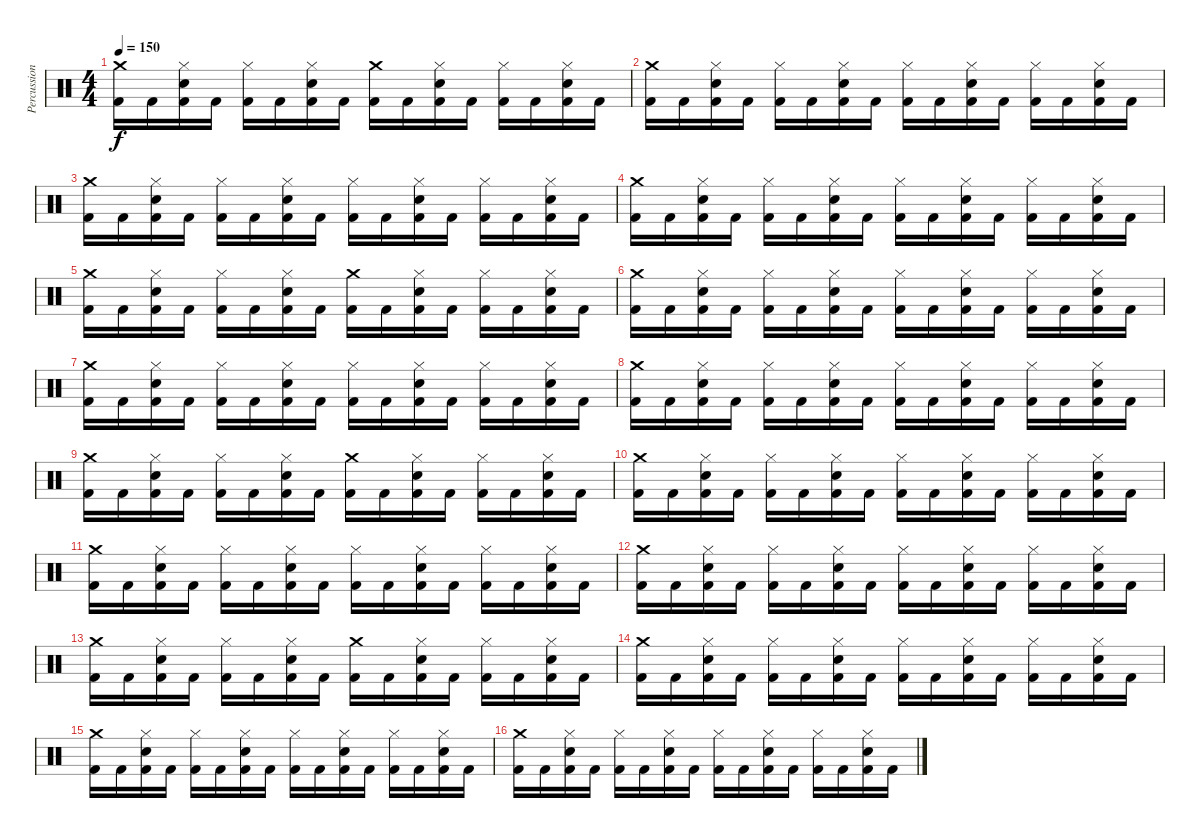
\track ("Percussioni" "Percussion") {instrument percussion}
\staff {score}
\articulation defaults
\ts (4 4)
\tempo 150
\clef neutral
\ks c
("Crash medium (hit)" "Kick (hit) 2").16{dy f} "Kick (hit) 2".16 ("Hi-Hat (closed)" "Electric Snare (hit)" "Kick (hit) 2").16 "Kick (hit) 2".16 ("Hi-Hat (closed)" "Kick (hit) 2").16 "Kick (hit) 2".16 ("Hi-Hat (closed)" "Electric Snare (hit)" "Kick (hit) 2").16 "Kick (hit) 2".16 ("Crash medium (hit)" "Kick (hit) 2").16 "Kick (hit) 2".16 ("Hi-Hat (closed)" "Electric Snare (hit)" "Kick (hit) 2").16 "Kick (hit) 2".16 ("Hi-Hat (closed)" "Kick (hit) 2").16 "Kick (hit) 2".16 ("Hi-Hat (closed)" "Electric Snare (hit)" "Kick (hit) 2").16 "Kick (hit) 2".16 |
("Crash medium (hit)" "Kick (hit) 2").16 "Kick (hit) 2".16 ("Hi-Hat (closed)" "Electric Snare (hit)" "Kick (hit) 2").16 "Kick (hit) 2".16 ("Hi-Hat (closed)" "Kick (hit) 2").16 "Kick (hit) 2".16 ("Hi-Hat (closed)" "Electric Snare (hit)" "Kick (hit) 2").16 "Kick (hit) 2".16 ("Hi-Hat (closed)" "Kick (hit) 2").16 "Kick (hit) 2".16 ("Hi-Hat (closed)" "Electric Snare (hit)" "Kick (hit) 2").16 "Kick (hit) 2".16 ("Hi-Hat (closed)" "Kick (hit) 2").16 "Kick (hit) 2".16 ("Hi-Hat (closed)" "Electric Snare (hit)" "Kick (hit) 2").16 "Kick (hit) 2".16 |
("Crash medium (hit)" "Kick (hit) 2").16 "Kick (hit) 2".16 ("Hi-Hat (closed)" "Electric Snare (hit)" "Kick (hit) 2").16 "Kick (hit) 2".16 ("Hi-Hat (closed)" "Kick (hit) 2").16 "Kick (hit) 2".16 ("Hi-Hat (closed)" "Electric Snare (hit)" "Kick (hit) 2").16 "Kick (hit) 2".16 ("Hi-Hat (closed)" "Kick (hit) 2").16 "Kick (hit) 2".16 ("Hi-Hat (closed)" "Electric Snare (hit)" "Kick (hit) 2").16 "Kick (hit) 2".16 ("Hi-Hat (closed)" "Kick (hit) 2").16 "Kick (hit) 2".16 ("Hi-Hat (closed)" "Electric Snare (hit)" "Kick (hit) 2").16 "Kick (hit) 2".16 |
("Crash medium (hit)" "Kick (hit) 2").16 "Kick (hit) 2".16 ("Hi-Hat (closed)" "Electric Snare (hit)" "Kick (hit) 2").16 "Kick (hit) 2".16 ("Hi-Hat (closed)" "Kick (hit) 2").16 "Kick (hit) 2".16 ("Hi-Hat (closed)" "Electric Snare (hit)" "Kick (hit) 2").16 "Kick (hit) 2".16 ("Hi-Hat (closed)" "Kick (hit) 2").16 "Kick (hit) 2".16 ("Hi-Hat (closed)" "Electric Snare (hit)" "Kick (hit) 2").16 "Kick (hit) 2".16 ("Hi-Hat (closed)" "Kick (hit) 2").16 "Kick (hit) 2".16 ("Hi-Hat (closed)" "Electric Snare (hit)" "Kick (hit) 2").16 "Kick (hit) 2".16 |
("Crash medium (hit)" "Kick (hit) 2").16 "Kick (hit) 2".16 ("Hi-Hat (closed)" "Electric Snare (hit)" "Kick (hit) 2").16 "Kick (hit) 2".16 ("Hi-Hat (closed)" "Kick (hit) 2").16 "Kick (hit) 2".16 ("Hi-Hat (closed)" "Electric Snare (hit)" "Kick (hit) 2").16 "Kick (hit) 2".16 ("Crash medium (hit)" "Kick (hit) 2").16 "Kick (hit) 2".16 ("Hi-Hat (closed)" "Electric Snare (hit)" "Kick (hit) 2").16 "Kick (hit) 2".16 ("Hi-Hat (closed)" "Kick (hit) 2").16 "Kick (hit) 2".16 ("Hi-Hat (closed)" "Electric Snare (hit)" "Kick (hit) 2").16 "Kick (hit) 2".16 |
("Crash medium (hit)" "Kick (hit) 2").16 "Kick (hit) 2".16 ("Hi-Hat (closed)" "Electric Snare (hit)" "Kick (hit) 2").16 "Kick (hit) 2".16 ("Hi-Hat (closed)" "Kick (hit) 2").16 "Kick (hit) 2".16 ("Hi-Hat (closed)" "Electric Snare (hit)" "Kick (hit) 2").16 "Kick (hit) 2".16 ("Hi-Hat (closed)" "Kick (hit) 2").16 "Kick (hit) 2".16 ("Hi-Hat (closed)" "Electric Snare (hit)" "Kick (hit) 2").16 "Kick (hit) 2".16 ("Hi-Hat (closed)" "Kick (hit) 2").16 "Kick (hit) 2".16 ("Hi-Hat (closed)" "Electric Snare (hit)" "Kick (hit) 2").16 "Kick (hit) 2".16 |
("Crash medium (hit)" "Kick (hit) 2").16 "Kick (hit) 2".16 ("Hi-Hat (closed)" "Electric Snare (hit)" "Kick (hit) 2").16 "Kick (hit) 2".16 ("Hi-Hat (closed)" "Kick (hit) 2").16 "Kick (hit) 2".16 ("Hi-Hat (closed)" "Electric Snare (hit)" "Kick (hit) 2").16 "Kick (hit) 2".16 ("Hi-Hat (closed)" "Kick (hit) 2").16 "Kick (hit) 2".16 ("Hi-Hat (closed)" "Electric Snare (hit)" "Kick (hit) 2").16 "Kick (hit) 2".16 ("Hi-Hat (closed)" "Kick (hit) 2").16 "Kick (hit) 2".16 ("Hi-Hat (closed)" "Electric Snare (hit)" "Kick (hit) 2").16 "Kick (hit) 2".16 |
("Crash medium (hit)" "Kick (hit) 2").16 "Kick (hit) 2".16 ("Hi-Hat (closed)" "Electric Snare (hit)" "Kick (hit) 2").16 "Kick (hit) 2".16 ("Hi-Hat (closed)" "Kick (hit) 2").16 "Kick (hit) 2".16 ("Hi-Hat (closed)" "Electric Snare (hit)" "Kick (hit) 2").16 "Kick (hit) 2".16 ("Hi-Hat (closed)" "Kick (hit) 2").16 "Kick (hit) 2".16 ("Hi-Hat (closed)" "Electric Snare (hit)" "Kick (hit) 2").16 "Kick (hit) 2".16 ("Hi-Hat (closed)" "Kick (hit) 2").16 "Kick (hit) 2".16 ("Hi-Hat (closed)" "Electric Snare (hit)" "Kick (hit) 2").16 "Kick (hit) 2".16 |
("Crash medium (hit)" "Kick (hit) 2").16 "Kick (hit) 2".16 ("Hi-Hat (closed)" "Electric Snare (hit)" "Kick (hit) 2").16 "Kick (hit) 2".16 ("Hi-Hat (closed)" "Kick (hit) 2").16 "Kick (hit) 2".16 ("Hi-Hat (closed)" "Electric Snare (hit)" "Kick (hit) 2").16 "Kick (hit) 2".16 ("Crash medium (hit)" "Kick (hit) 2").16 "Kick (hit) 2".16 ("Hi-Hat (closed)" "Electric Snare (hit)" "Kick (hit) 2").16 "Kick (hit) 2".16 ("Hi-Hat (closed)" "Kick (hit) 2").16 "Kick (hit) 2".16 ("Hi-Hat (closed)" "Electric Snare (hit)" "Kick (hit) 2").16 "Kick (hit) 2".16 |
("Crash medium (hit)" "Kick (hit) 2").16 "Kick (hit) 2".16 ("Hi-Hat (closed)" "Electric Snare (hit)" "Kick (hit) 2").16 "Kick (hit) 2".16 ("Hi-Hat (closed)" "Kick (hit) 2").16 "Kick (hit) 2".16 ("Hi-Hat (closed)" "Electric Snare (hit)" "Kick (hit) 2").16 "Kick (hit) 2".16 ("Hi-Hat (closed)" "Kick (hit) 2").16 "Kick (hit) 2".16 ("Hi-Hat (closed)" "Electric Snare (hit)" "Kick (hit) 2").16 "Kick (hit) 2".16 ("Hi-Hat (closed)" "Kick (hit) 2").16 "Kick (hit) 2".16 ("Hi-Hat (closed)" "Electric Snare (hit)" "Kick (hit) 2").16 "Kick (hit) 2".16 |
("Crash medium (hit)" "Kick (hit) 2").16 "Kick (hit) 2".16 ("Hi-Hat (closed)" "Electric Snare (hit)" "Kick (hit) 2").16 "Kick (hit) 2".16 ("Hi-Hat (closed)" "Kick (hit) 2").16 "Kick (hit) 2".16 ("Hi-Hat (closed)" "Electric Snare (hit)" "Kick (hit) 2").16 "Kick (hit) 2".16 ("Hi-Hat (closed)" "Kick (hit) 2").16 "Kick (hit) 2".16 ("Hi-Hat (closed)" "Electric Snare (hit)" "Kick (hit) 2").16 "Kick (hit) 2".16 ("Hi-Hat (closed)" "Kick (hit) 2").16 "Kick (hit) 2".16 ("Hi-Hat (closed)" "Electric Snare (hit)" "Kick (hit) 2").16 "Kick (hit) 2".16 |
("Crash medium (hit)" "Kick (hit) 2").16 "Kick (hit) 2".16 ("Hi-Hat (closed)" "Electric Snare (hit)" "Kick (hit) 2").16 "Kick (hit) 2".16 ("Hi-Hat (closed)" "Kick (hit) 2").16 "Kick (hit) 2".16 ("Hi-Hat (closed)" "Electric Snare (hit)" "Kick (hit) 2").16 "Kick (hit) 2".16 ("Hi-Hat (closed)" "Kick (hit) 2").16 "Kick (hit) 2".16 ("Hi-Hat (closed)" "Electric Snare (hit)" "Kick (hit) 2").16 "Kick (hit) 2".16 ("Hi-Hat (closed)" "Kick (hit) 2").16 "Kick (hit) 2".16 ("Hi-Hat (closed)" "Electric Snare (hit)" "Kick (hit) 2").16 "Kick (hit) 2".16 |
("Crash medium (hit)" "Kick (hit) 2").16 "Kick (hit) 2".16 ("Hi-Hat (closed)" "Electric Snare (hit)" "Kick (hit) 2").16 "Kick (hit) 2".16 ("Hi-Hat (closed)" "Kick (hit) 2").16 "Kick (hit) 2".16 ("Hi-Hat (closed)" "Electric Snare (hit)" "Kick (hit) 2").16 "Kick (hit) 2".16 ("Crash medium (hit)" "Kick (hit) 2").16 "Kick (hit) 2".16 ("Hi-Hat (closed)" "Electric Snare (hit)" "Kick (hit) 2").16 "Kick (hit) 2".16 ("Hi-Hat (closed)" "Kick (hit) 2").16 "Kick (hit) 2".16 ("Hi-Hat (closed)" "Electric Snare (hit)" "Kick (hit) 2").16 "Kick (hit) 2".16 |
("Crash medium (hit)" "Kick (hit) 2").16 "Kick (hit) 2".16 ("Hi-Hat (closed)" "Electric Snare (hit)" "Kick (hit) 2").16 "Kick (hit) 2".16 ("Hi-Hat (closed)" "Kick (hit) 2").16 "Kick (hit) 2".16 ("Hi-Hat (closed)" "Electric Snare (hit)" "Kick (hit) 2").16 "Kick (hit) 2".16 ("Hi-Hat (closed)" "Kick (hit) 2").16 "Kick (hit) 2".16 ("Hi-Hat (closed)" "Electric Snare (hit)" "Kick (hit) 2").16 "Kick (hit) 2".16 ("Hi-Hat (closed)" "Kick (hit) 2").16 "Kick (hit) 2".16 ("Hi-Hat (closed)" "Electric Snare (hit)" "Kick (hit) 2").16 "Kick (hit) 2".16 |
("Crash medium (hit)" "Kick (hit) 2").16 "Kick (hit) 2".16 ("Hi-Hat (closed)" "Electric Snare (hit)" "Kick (hit) 2").16 "Kick (hit) 2".16 ("Hi-Hat (closed)" "Kick (hit) 2").16 "Kick (hit) 2".16 ("Hi-Hat (closed)" "Electric Snare (hit)" "Kick (hit) 2").16 "Kick (hit) 2".16 ("Hi-Hat (closed)" "Kick (hit) 2").16 "Kick (hit) 2".16 ("Hi-Hat (closed)" "Electric Snare (hit)" "Kick (hit) 2").16 "Kick (hit) 2".16 ("Hi-Hat (closed)" "Kick (hit) 2").16 "Kick (hit) 2".16 ("Hi-Hat (closed)" "Electric Snare (hit)" "Kick (hit) 2").16 "Kick (hit) 2".16 |
("Crash medium (hit)" "Kick (hit) 2").16 "Kick (hit) 2".16 ("Hi-Hat (closed)" "Electric Snare (hit)" "Kick (hit) 2").16 "Kick (hit) 2".16 ("Hi-Hat (closed)" "Kick (hit) 2").16 "Kick (hit) 2".16 ("Hi-Hat (closed)" "Electric Snare (hit)" "Kick (hit) 2").16 "Kick (hit) 2".16 ("Hi-Hat (closed)" "Kick (hit) 2").16 "Kick (hit) 2".16 ("Hi-Hat (closed)" "Electric Snare (hit)" "Kick (hit) 2").16 "Kick (hit) 2".16 ("Hi-Hat (closed)" "Kick (hit) 2").16 "Kick (hit) 2".16 ("Hi-Hat (closed)" "Electric Snare (hit)" "Kick (hit) 2").16 "Kick (hit) 2".16
